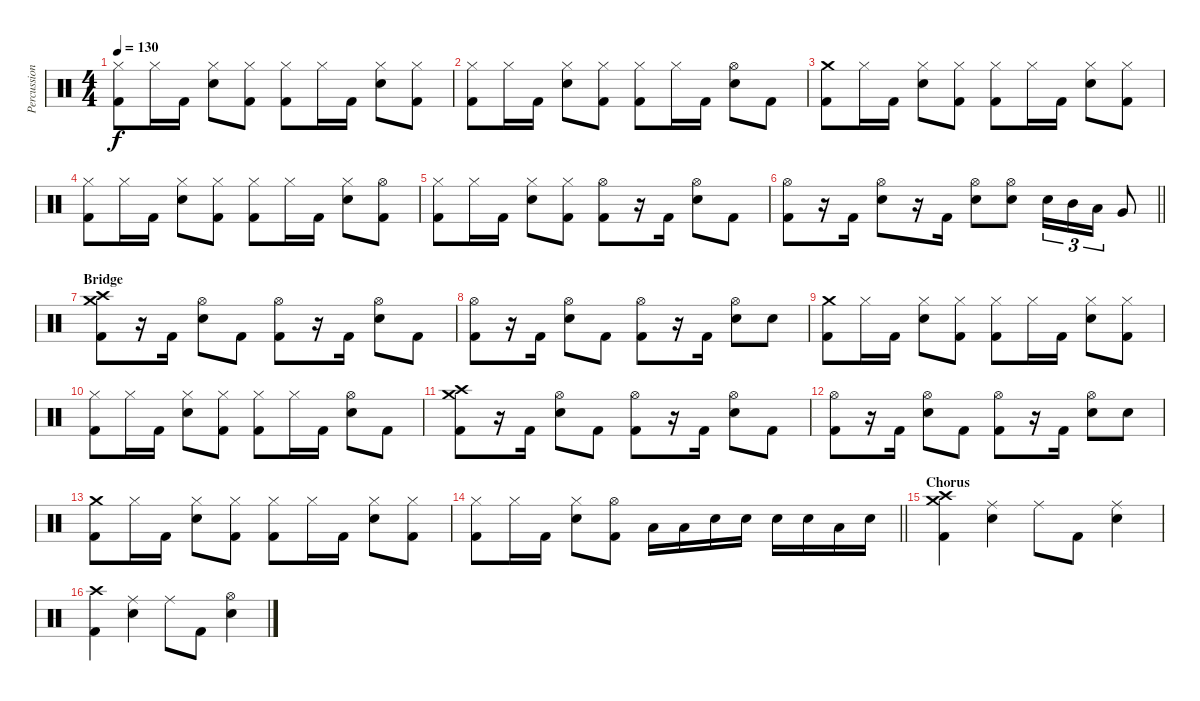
\track ("Percussion" "Percussion") {instrument percussion}
\staff {score}
\articulation defaults
\ts (4 4)
\tempo 130
\clef neutral
\ks c
("Hi-Hat (closed)" "Kick (hit) 2").8{dy f} "Hi-Hat (closed)".16 "Kick (hit) 2".16 ("Hi-Hat (closed)" "Snare (hit) 2").8 ("Hi-Hat (closed)" "Kick (hit) 2").8 ("Hi-Hat (closed)" "Kick (hit) 2").8 "Hi-Hat (closed)".16 "Kick (hit) 2".16 ("Hi-Hat (closed)" "Snare (hit) 2").8 ("Hi-Hat (closed)" "Kick (hit) 2").8 |
("Hi-Hat (closed)" "Kick (hit) 2").8 "Hi-Hat (closed)".16 "Kick (hit) 2".16 ("Hi-Hat (closed)" "Snare (hit) 2").8 ("Hi-Hat (closed)" "Kick (hit) 2").8 ("Hi-Hat (closed)" "Kick (hit) 2").8 "Hi-Hat (closed)".16 "Kick (hit) 2".16 ("Hi-Hat (open)" "Snare (hit) 2").8 "Kick (hit) 2".8 |
("Crash medium (hit)" "Kick (hit) 2").8 "Hi-Hat (closed)".16 "Kick (hit) 2".16 ("Hi-Hat (closed)" "Snare (hit) 2").8 ("Hi-Hat (closed)" "Kick (hit) 2").8 ("Hi-Hat (closed)" "Kick (hit) 2").8 "Hi-Hat (closed)".16 "Kick (hit) 2".16 ("Hi-Hat (closed)" "Snare (hit) 2").8 ("Hi-Hat (closed)" "Kick (hit) 2").8 |
("Hi-Hat (closed)" "Kick (hit) 2").8 "Hi-Hat (closed)".16 "Kick (hit) 2".16 ("Hi-Hat (closed)" "Snare (hit) 2").8 ("Hi-Hat (closed)" "Kick (hit) 2").8 ("Hi-Hat (closed)" "Kick (hit) 2").8 "Hi-Hat (closed)".16 "Kick (hit) 2".16 ("Hi-Hat (closed)" "Snare (hit) 2").8 ("Hi-Hat (open)" "Kick (hit) 2").8 |
("Hi-Hat (closed)" "Kick (hit) 2").8 "Hi-Hat (closed)".16 "Kick (hit) 2".16 ("Hi-Hat (closed)" "Snare (hit) 2").8 ("Hi-Hat (closed)" "Kick (hit) 2").8 ("Hi-Hat (open)" "Kick (hit) 2").8 r.16 "Kick (hit) 2".16 ("Hi-Hat (open)" "Snare (hit) 2").8 "Kick (hit) 2".8 |
\barLineRight lightlight
("Hi-Hat (open)" "Kick (hit) 2").8 r.16 "Kick (hit) 2".16 ("Hi-Hat (open)" "Snare (hit) 2").8 r.16 "Kick (hit) 2".16 ("Hi-Hat (open)" "Snare (hit) 2").8 ("Hi-Hat (open)" "Snare (hit) 2").8 "Snare (hit) 2".16{tu (3 2)} "Mid Tom (hit)".16{tu (3 2)} "Low Tom (hit)".16{tu (3 2)} "Very Low Tom (hit)".8 |
\section ("" "Bridge")
("Crash medium (hit)" "Crash high (hit)" "Kick (hit) 2").8 r.16 "Kick (hit) 2".16 ("Hi-Hat (open)" "Snare (hit) 2").8 "Kick (hit) 2".8 ("Hi-Hat (open)" "Kick (hit) 2").8 r.16 "Kick (hit) 2".16 ("Hi-Hat (open)" "Snare (hit) 2").8 "Kick (hit) 2".8 |
("Hi-Hat (open)" "Kick (hit) 2").8 r.16 "Kick (hit) 2".16 ("Hi-Hat (open)" "Snare (hit) 2").8 "Kick (hit) 2".8 ("Hi-Hat (open)" "Kick (hit) 2").8 r.16 "Kick (hit) 2".16 ("Hi-Hat (open)" "Snare (hit) 2").8 "Snare (hit) 2".8 |
("Crash medium (hit)" "Kick (hit) 2").8 "Hi-Hat (closed)".16 "Kick (hit) 2".16 ("Hi-Hat (closed)" "Snare (hit) 2").8 ("Hi-Hat (closed)" "Kick (hit) 2").8 ("Hi-Hat (closed)" "Kick (hit) 2").8 "Hi-Hat (closed)".16 "Kick (hit) 2".16 ("Hi-Hat (closed)" "Snare (hit) 2").8 ("Hi-Hat (closed)" "Kick (hit) 2").8 |
("Hi-Hat (closed)" "Kick (hit) 2").8 "Hi-Hat (closed)".16 "Kick (hit) 2".16 ("Hi-Hat (closed)" "Snare (hit) 2").8 ("Hi-Hat (closed)" "Kick (hit) 2").8 ("Hi-Hat (closed)" "Kick (hit) 2").8 "Hi-Hat (closed)".16 "Kick (hit) 2".16 ("Hi-Hat (open)" "Snare (hit) 2").8 "Kick (hit) 2".8 |
("Crash medium (hit)" "Crash high (hit)" "Kick (hit) 2").8 r.16 "Kick (hit) 2".16 ("Hi-Hat (open)" "Snare (hit) 2").8 "Kick (hit) 2".8 ("Hi-Hat (open)" "Kick (hit) 2").8 r.16 "Kick (hit) 2".16 ("Hi-Hat (open)" "Snare (hit) 2").8 "Kick (hit) 2".8 |
("Hi-Hat (open)" "Kick (hit) 2").8 r.16 "Kick (hit) 2".16 ("Hi-Hat (open)" "Snare (hit) 2").8 "Kick (hit) 2".8 ("Hi-Hat (open)" "Kick (hit) 2").8 r.16 "Kick (hit) 2".16 ("Hi-Hat (open)" "Snare (hit) 2").8 "Snare (hit) 2".8 |
("Crash medium (hit)" "Kick (hit) 2").8 "Hi-Hat (closed)".16 "Kick (hit) 2".16 ("Hi-Hat (closed)" "Snare (hit) 2").8 ("Hi-Hat (closed)" "Kick (hit) 2").8 ("Hi-Hat (closed)" "Kick (hit) 2").8 "Hi-Hat (closed)".16 "Kick (hit) 2".16 ("Hi-Hat (closed)" "Snare (hit) 2").8 ("Hi-Hat (closed)" "Kick (hit) 2").8 |
\barLineRight lightlight
("Hi-Hat (closed)" "Kick (hit) 2").8 "Hi-Hat (closed)".16 "Kick (hit) 2".16 ("Hi-Hat (closed)" "Snare (hit) 2").8 ("Hi-Hat (open)" "Kick (hit) 2").8 "Low Tom (hit)".16 "Low Tom (hit)".16 "Snare (hit) 2".16 "Snare (hit) 2".16 "Snare (hit) 2".16 "Snare (hit) 2".16 "Low Tom (hit)".16 "Snare (hit) 2".16 |
\section ("" "Chorus")
("Crash high (hit)" "Crash medium (hit)" "Kick (hit) 2").4 ("Ride (middle)" "Snare (hit) 2").4 "Ride (middle)".8 "Kick (hit) 2".8 ("Ride (middle)" "Snare (hit) 2").4 |
("Crash high (hit)" "Kick (hit) 2").4 ("Ride (middle)" "Snare (hit) 2").4 "Ride (middle)".8 "Kick (hit) 2".8 ("Hi-Hat (open)" "Snare (hit) 2").4
